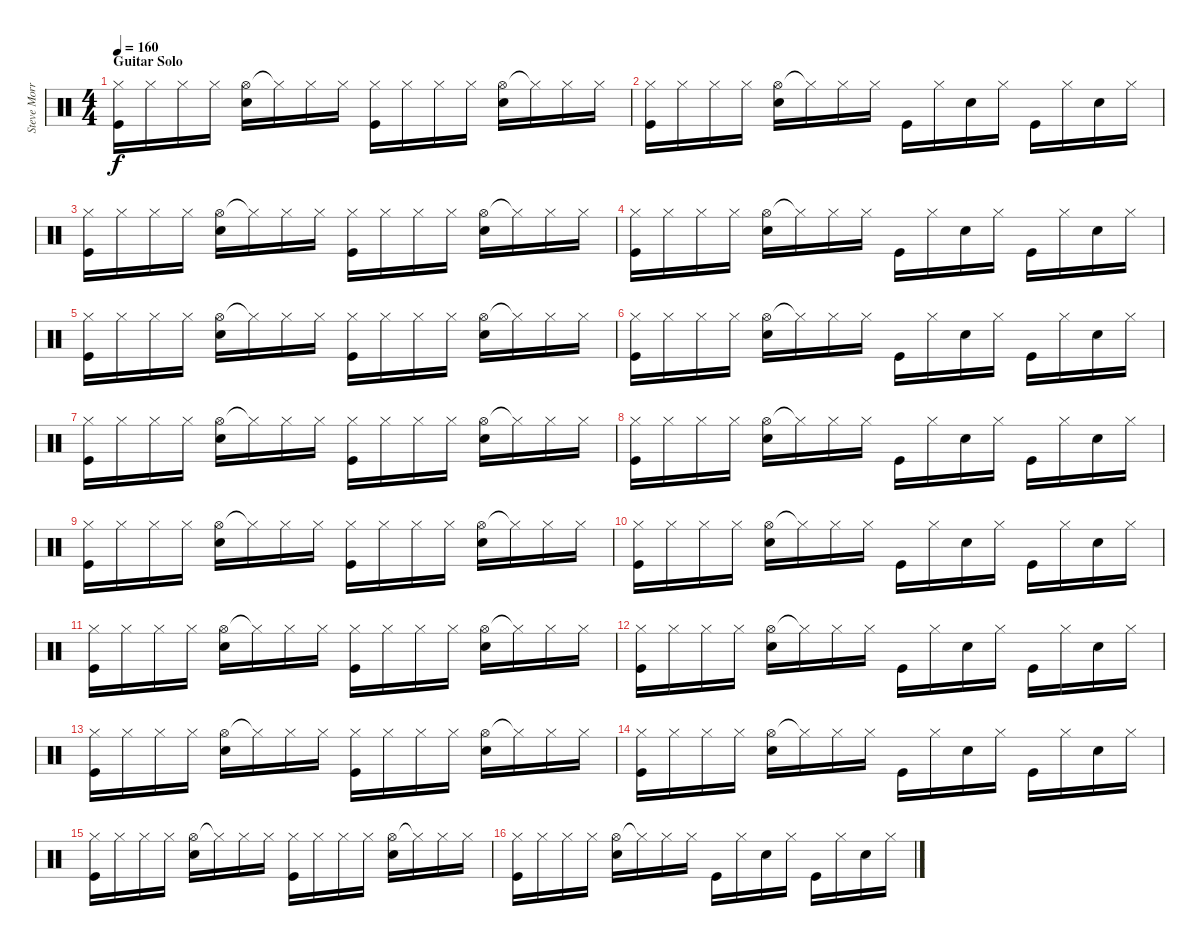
\track ("Steve Morris" "Steve Morr") {instrument percussion}
\staff {score}
\articulation defaults
\ts (4 4)
\section ("" "Guitar Solo")
\tempo 160
\clef neutral
\ks c
("Hi-Hat (closed)" "Kick (hit)").16{dy f} "Hi-Hat (closed)".16 "Hi-Hat (closed)".16 "Hi-Hat (closed)".16 ("Hi-Hat (open)" "Electric Snare (hit)").16 "Hi-Hat (closed)"{t}.16 "Hi-Hat (closed)".16 "Hi-Hat (closed)".16 ("Hi-Hat (closed)" "Kick (hit)").16 "Hi-Hat (closed)".16 "Hi-Hat (closed)".16 "Hi-Hat (closed)".16 ("Hi-Hat (open)" "Electric Snare (hit)").16 "Hi-Hat (closed)"{t}.16 "Hi-Hat (closed)".16 "Hi-Hat (closed)".16 |
("Hi-Hat (closed)" "Kick (hit)").16 "Hi-Hat (closed)".16 "Hi-Hat (closed)".16 "Hi-Hat (closed)".16 ("Hi-Hat (open)" "Electric Snare (hit)").16 "Hi-Hat (closed)"{t}.16 "Hi-Hat (closed)".16 "Hi-Hat (closed)".16 "Kick (hit)".16 "Hi-Hat (closed)".16 "Electric Snare (hit)".16 "Hi-Hat (closed)".16 "Kick (hit)".16 "Hi-Hat (closed)".16 "Electric Snare (hit)".16 "Hi-Hat (closed)".16 |
("Hi-Hat (closed)" "Kick (hit)").16 "Hi-Hat (closed)".16 "Hi-Hat (closed)".16 "Hi-Hat (closed)".16 ("Hi-Hat (open)" "Electric Snare (hit)").16 "Hi-Hat (closed)"{t}.16 "Hi-Hat (closed)".16 "Hi-Hat (closed)".16 ("Hi-Hat (closed)" "Kick (hit)").16 "Hi-Hat (closed)".16 "Hi-Hat (closed)".16 "Hi-Hat (closed)".16 ("Hi-Hat (open)" "Electric Snare (hit)").16 "Hi-Hat (closed)"{t}.16 "Hi-Hat (closed)".16 "Hi-Hat (closed)".16 |
("Hi-Hat (closed)" "Kick (hit)").16 "Hi-Hat (closed)".16 "Hi-Hat (closed)".16 "Hi-Hat (closed)".16 ("Hi-Hat (open)" "Electric Snare (hit)").16 "Hi-Hat (closed)"{t}.16 "Hi-Hat (closed)".16 "Hi-Hat (closed)".16 "Kick (hit)".16 "Hi-Hat (closed)".16 "Electric Snare (hit)".16 "Hi-Hat (closed)".16 "Kick (hit)".16 "Hi-Hat (closed)".16 "Electric Snare (hit)".16 "Hi-Hat (closed)".16 |
("Hi-Hat (closed)" "Kick (hit)").16 "Hi-Hat (closed)".16 "Hi-Hat (closed)".16 "Hi-Hat (closed)".16 ("Hi-Hat (open)" "Electric Snare (hit)").16 "Hi-Hat (closed)"{t}.16 "Hi-Hat (closed)".16 "Hi-Hat (closed)".16 ("Hi-Hat (closed)" "Kick (hit)").16 "Hi-Hat (closed)".16 "Hi-Hat (closed)".16 "Hi-Hat (closed)".16 ("Hi-Hat (open)" "Electric Snare (hit)").16 "Hi-Hat (closed)"{t}.16 "Hi-Hat (closed)".16 "Hi-Hat (closed)".16 |
("Hi-Hat (closed)" "Kick (hit)").16 "Hi-Hat (closed)".16 "Hi-Hat (closed)".16 "Hi-Hat (closed)".16 ("Hi-Hat (open)" "Electric Snare (hit)").16 "Hi-Hat (closed)"{t}.16 "Hi-Hat (closed)".16 "Hi-Hat (closed)".16 "Kick (hit)".16 "Hi-Hat (closed)".16 "Electric Snare (hit)".16 "Hi-Hat (closed)".16 "Kick (hit)".16 "Hi-Hat (closed)".16 "Electric Snare (hit)".16 "Hi-Hat (closed)".16 |
("Hi-Hat (closed)" "Kick (hit)").16 "Hi-Hat (closed)".16 "Hi-Hat (closed)".16 "Hi-Hat (closed)".16 ("Hi-Hat (open)" "Electric Snare (hit)").16 "Hi-Hat (closed)"{t}.16 "Hi-Hat (closed)".16 "Hi-Hat (closed)".16 ("Hi-Hat (closed)" "Kick (hit)").16 "Hi-Hat (closed)".16 "Hi-Hat (closed)".16 "Hi-Hat (closed)".16 ("Hi-Hat (open)" "Electric Snare (hit)").16 "Hi-Hat (closed)"{t}.16 "Hi-Hat (closed)".16 "Hi-Hat (closed)".16 |
("Hi-Hat (closed)" "Kick (hit)").16 "Hi-Hat (closed)".16 "Hi-Hat (closed)".16 "Hi-Hat (closed)".16 ("Hi-Hat (open)" "Electric Snare (hit)").16 "Hi-Hat (closed)"{t}.16 "Hi-Hat (closed)".16 "Hi-Hat (closed)".16 "Kick (hit)".16 "Hi-Hat (closed)".16 "Electric Snare (hit)".16 "Hi-Hat (closed)".16 "Kick (hit)".16 "Hi-Hat (closed)".16 "Electric Snare (hit)".16 "Hi-Hat (closed)".16 |
("Hi-Hat (closed)" "Kick (hit)").16 "Hi-Hat (closed)".16 "Hi-Hat (closed)".16 "Hi-Hat (closed)".16 ("Hi-Hat (open)" "Electric Snare (hit)").16 "Hi-Hat (closed)"{t}.16 "Hi-Hat (closed)".16 "Hi-Hat (closed)".16 ("Hi-Hat (closed)" "Kick (hit)").16 "Hi-Hat (closed)".16 "Hi-Hat (closed)".16 "Hi-Hat (closed)".16 ("Hi-Hat (open)" "Electric Snare (hit)").16 "Hi-Hat (closed)"{t}.16 "Hi-Hat (closed)".16 "Hi-Hat (closed)".16 |
("Hi-Hat (closed)" "Kick (hit)").16 "Hi-Hat (closed)".16 "Hi-Hat (closed)".16 "Hi-Hat (closed)".16 ("Hi-Hat (open)" "Electric Snare (hit)").16 "Hi-Hat (closed)"{t}.16 "Hi-Hat (closed)".16 "Hi-Hat (closed)".16 "Kick (hit)".16 "Hi-Hat (closed)".16 "Electric Snare (hit)".16 "Hi-Hat (closed)".16 "Kick (hit)".16 "Hi-Hat (closed)".16 "Electric Snare (hit)".16 "Hi-Hat (closed)".16 |
("Hi-Hat (closed)" "Kick (hit)").16 "Hi-Hat (closed)".16 "Hi-Hat (closed)".16 "Hi-Hat (closed)".16 ("Hi-Hat (open)" "Electric Snare (hit)").16 "Hi-Hat (closed)"{t}.16 "Hi-Hat (closed)".16 "Hi-Hat (closed)".16 ("Hi-Hat (closed)" "Kick (hit)").16 "Hi-Hat (closed)".16 "Hi-Hat (closed)".16 "Hi-Hat (closed)".16 ("Hi-Hat (open)" "Electric Snare (hit)").16 "Hi-Hat (closed)"{t}.16 "Hi-Hat (closed)".16 "Hi-Hat (closed)".16 |
("Hi-Hat (closed)" "Kick (hit)").16 "Hi-Hat (closed)".16 "Hi-Hat (closed)".16 "Hi-Hat (closed)".16 ("Hi-Hat (open)" "Electric Snare (hit)").16 "Hi-Hat (closed)"{t}.16 "Hi-Hat (closed)".16 "Hi-Hat (closed)".16 "Kick (hit)".16 "Hi-Hat (closed)".16 "Electric Snare (hit)".16 "Hi-Hat (closed)".16 "Kick (hit)".16 "Hi-Hat (closed)".16 "Electric Snare (hit)".16 "Hi-Hat (closed)".16 |
("Hi-Hat (closed)" "Kick (hit)").16 "Hi-Hat (closed)".16 "Hi-Hat (closed)".16 "Hi-Hat (closed)".16 ("Hi-Hat (open)" "Electric Snare (hit)").16 "Hi-Hat (closed)"{t}.16 "Hi-Hat (closed)".16 "Hi-Hat (closed)".16 ("Hi-Hat (closed)" "Kick (hit)").16 "Hi-Hat (closed)".16 "Hi-Hat (closed)".16 "Hi-Hat (closed)".16 ("Hi-Hat (open)" "Electric Snare (hit)").16 "Hi-Hat (closed)"{t}.16 "Hi-Hat (closed)".16 "Hi-Hat (closed)".16 |
("Hi-Hat (closed)" "Kick (hit)").16 "Hi-Hat (closed)".16 "Hi-Hat (closed)".16 "Hi-Hat (closed)".16 ("Hi-Hat (open)" "Electric Snare (hit)").16 "Hi-Hat (closed)"{t}.16 "Hi-Hat (closed)".16 "Hi-Hat (closed)".16 "Kick (hit)".16 "Hi-Hat (closed)".16 "Electric Snare (hit)".16 "Hi-Hat (closed)".16 "Kick (hit)".16 "Hi-Hat (closed)".16 "Electric Snare (hit)".16 "Hi-Hat (closed)".16 |
("Hi-Hat (closed)" "Kick (hit)").16 "Hi-Hat (closed)".16 "Hi-Hat (closed)".16 "Hi-Hat (closed)".16 ("Hi-Hat (open)" "Electric Snare (hit)").16 "Hi-Hat (closed)"{t}.16 "Hi-Hat (closed)".16 "Hi-Hat (closed)".16 ("Hi-Hat (closed)" "Kick (hit)").16 "Hi-Hat (closed)".16 "Hi-Hat (closed)".16 "Hi-Hat (closed)".16 ("Hi-Hat (open)" "Electric Snare (hit)").16 "Hi-Hat (closed)"{t}.16 "Hi-Hat (closed)".16 "Hi-Hat (closed)".16 |
("Hi-Hat (closed)" "Kick (hit)").16 "Hi-Hat (closed)".16 "Hi-Hat (closed)".16 "Hi-Hat (closed)".16 ("Hi-Hat (open)" "Electric Snare (hit)").16 "Hi-Hat (closed)"{t}.16 "Hi-Hat (closed)".16 "Hi-Hat (closed)".16 "Kick (hit)".16 "Hi-Hat (closed)".16 "Electric Snare (hit)".16 "Hi-Hat (closed)".16 "Kick (hit)".16 "Hi-Hat (closed)".16 "Electric Snare (hit)".16 "Hi-Hat (closed)".16
